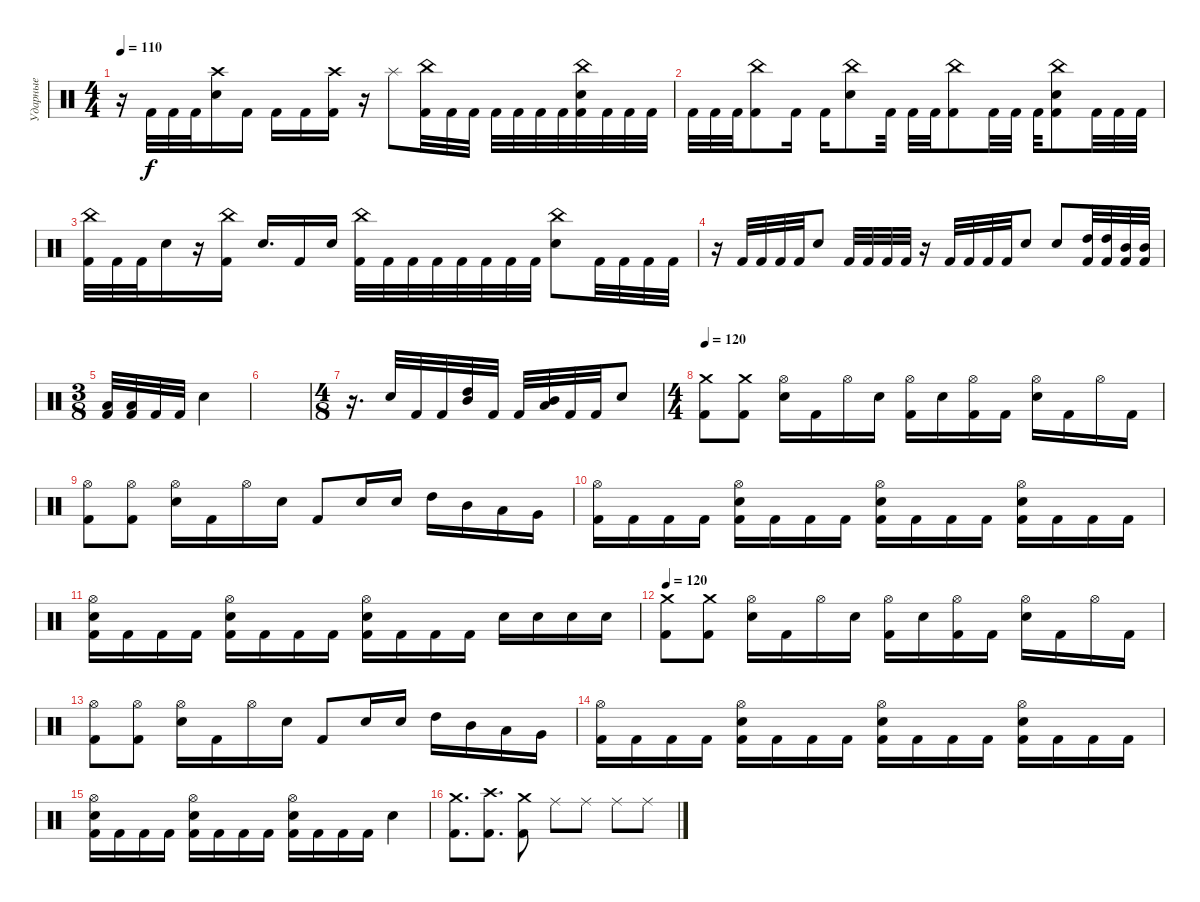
\track ("Ударные" "Ударные") {instrument percussion}
\staff {score}
\articulation defaults
\ts (4 4)
\tempo 110
\clef neutral
\ks c
r.16{dy f} "Kick (hit) 2".32 "Kick (hit) 2".32 "Kick (hit) 2".32 ("Electric Snare (hit)" "Crash high (hit)").16 "Kick (hit) 2".16 "Kick (hit) 2".16 "Kick (hit) 2".16 ("Kick (hit) 2" "Crash high (hit)").16 r.16 "Splash (hit)".8 ("Kick (hit) 2" "China (hit)").32 "Kick (hit) 2".32 "Kick (hit) 2".32 "Kick (hit) 2".32 "Kick (hit) 2".32 "Kick (hit) 2".32 "Kick (hit) 2".32 ("Kick (hit) 2" "China (hit)" "Electric Snare (hit)").32 "Kick (hit) 2".32 "Kick (hit) 2".32 "Kick (hit) 2".32 |
"Kick (hit) 2".32 "Kick (hit) 2".32 "Kick (hit) 2".32 ("China (hit)" "Kick (hit) 2").8 "Kick (hit) 2".16 "Kick (hit) 2".16 ("Electric Snare (hit)" "China (hit)").8 "Kick (hit) 2".32 "Kick (hit) 2".32 "Kick (hit) 2".32 ("China (hit)" "Kick (hit) 2").8 "Kick (hit) 2".32 "Kick (hit) 2".32 "Kick (hit) 2".32 ("China (hit)" "Kick (hit) 2" "Electric Snare (hit)").8 "Kick (hit) 2".32 "Kick (hit) 2".32 "Kick (hit) 2".32 |
("Kick (hit) 2" "China (hit)").32 "Kick (hit) 2".32 "Kick (hit) 2".32 "Electric Snare (hit)".16 r.16 ("Kick (hit) 2" "China (hit)").16 "Electric Snare (hit)".16{d} "Kick (hit) 2".16 "Electric Snare (hit)".16 ("Kick (hit) 2" "China (hit)").32 "Kick (hit) 2".32 "Kick (hit) 2".32 "Kick (hit) 2".32 "Kick (hit) 2".32 "Kick (hit) 2".32 "Kick (hit) 2".32 "Kick (hit) 2".32 ("Electric Snare (hit)" "China (hit)").8 "Kick (hit) 2".32 "Kick (hit) 2".32 "Kick (hit) 2".32 "Kick (hit) 2".32 |
r.16 "Kick (hit) 2".32 "Kick (hit) 2".32 "Kick (hit) 2".32 "Kick (hit) 2".32 "Electric Snare (hit)".8 "Kick (hit) 2".32 "Kick (hit) 2".32 "Kick (hit) 2".32 "Kick (hit) 2".32 r.16 "Kick (hit) 2".32 "Kick (hit) 2".32 "Kick (hit) 2".32 "Kick (hit) 2".32 "Electric Snare (hit)".8 "Electric Snare (hit)".8 ("Kick (hit) 2" "High Tom (hit)").32 ("Kick (hit) 2" "High Tom (hit)").32 ("Kick (hit) 2" "Mid Tom (hit)").32 ("Kick (hit) 2" "Mid Tom (hit)").32 |
\ts (3 8)
("Kick (hit) 2" "Low Tom (hit)").32 ("Kick (hit) 2" "Low Tom (hit)").32 "Kick (hit) 2".32 "Kick (hit) 2".32 "Electric Snare (hit)".4 |
|
\ts (4 8)
r.16{d} "Electric Snare (hit)".32 "Kick (hit) 2".32 "Kick (hit) 2".32 ("High Tom (hit)" "Mid Tom (hit)").32 "Kick (hit) 2".32 "Kick (hit) 2".32 ("Mid Tom (hit)" "Low Tom (hit)").32 "Kick (hit) 2".32 "Kick (hit) 2".32 "Electric Snare (hit)".8 |
\ts (4 4)
\tempo 120
("Kick (hit) 2" "Crash medium (hit)").8 ("Kick (hit) 2" "Crash medium (hit)").8 ("Electric Snare (hit)" "Hi-Hat (open)").16 "Kick (hit) 2".16 "Hi-Hat (open)".16 "Electric Snare (hit)".16 ("Hi-Hat (open)" "Kick (hit) 2").16 "Electric Snare (hit)".16 ("Hi-Hat (open)" "Kick (hit) 2").16 "Kick (hit) 2".16 ("Hi-Hat (open)" "Electric Snare (hit)").16 "Kick (hit) 2".16 "Hi-Hat (open)".16 "Kick (hit) 2".16 |
("Kick (hit) 2" "Hi-Hat (open)").8 ("Kick (hit) 2" "Hi-Hat (open)").8 ("Electric Snare (hit)" "Hi-Hat (open)").16 "Kick (hit) 2".16 "Hi-Hat (open)".16 "Electric Snare (hit)".16 "Kick (hit) 2".8 "Electric Snare (hit)".16 "Electric Snare (hit)".16 "High Tom (hit)".16 "Mid Tom (hit)".16 "Low Tom (hit)".16 "Very Low Tom (hit)".16 |
("Kick (hit) 2" "Hi-Hat (open)").16 "Kick (hit) 2".16 "Kick (hit) 2".16 "Kick (hit) 2".16 ("Kick (hit) 2" "Hi-Hat (open)" "Electric Snare (hit)").16 "Kick (hit) 2".16 "Kick (hit) 2".16 "Kick (hit) 2".16 ("Kick (hit) 2" "Hi-Hat (open)" "Electric Snare (hit)").16 "Kick (hit) 2".16 "Kick (hit) 2".16 "Kick (hit) 2".16 ("Kick (hit) 2" "Hi-Hat (open)" "Electric Snare (hit)").16 "Kick (hit) 2".16 "Kick (hit) 2".16 "Kick (hit) 2".16 |
("Kick (hit) 2" "Hi-Hat (open)" "Electric Snare (hit)").16 "Kick (hit) 2".16 "Kick (hit) 2".16 "Kick (hit) 2".16 ("Kick (hit) 2" "Hi-Hat (open)" "Electric Snare (hit)").16 "Kick (hit) 2".16 "Kick (hit) 2".16 "Kick (hit) 2".16 ("Kick (hit) 2" "Hi-Hat (open)" "Electric Snare (hit)").16 "Kick (hit) 2".16 "Kick (hit) 2".16 "Kick (hit) 2".16 "Electric Snare (hit)".16 "Electric Snare (hit)".16 "Electric Snare (hit)".16 "Electric Snare (hit)".16 |
\tempo 120
("Kick (hit) 2" "Crash medium (hit)").8 ("Kick (hit) 2" "Crash medium (hit)").8 ("Electric Snare (hit)" "Hi-Hat (open)").16 "Kick (hit) 2".16 "Hi-Hat (open)".16 "Electric Snare (hit)".16 ("Hi-Hat (open)" "Kick (hit) 2").16 "Electric Snare (hit)".16 ("Hi-Hat (open)" "Kick (hit) 2").16 "Kick (hit) 2".16 ("Hi-Hat (open)" "Electric Snare (hit)").16 "Kick (hit) 2".16 "Hi-Hat (open)".16 "Kick (hit) 2".16 |
("Kick (hit) 2" "Hi-Hat (open)").8 ("Kick (hit) 2" "Hi-Hat (open)").8 ("Electric Snare (hit)" "Hi-Hat (open)").16 "Kick (hit) 2".16 "Hi-Hat (open)".16 "Electric Snare (hit)".16 "Kick (hit) 2".8 "Electric Snare (hit)".16 "Electric Snare (hit)".16 "High Tom (hit)".16 "Mid Tom (hit)".16 "Low Tom (hit)".16 "Very Low Tom (hit)".16 |
("Kick (hit) 2" "Hi-Hat (open)").16 "Kick (hit) 2".16 "Kick (hit) 2".16 "Kick (hit) 2".16 ("Kick (hit) 2" "Hi-Hat (open)" "Electric Snare (hit)").16 "Kick (hit) 2".16 "Kick (hit) 2".16 "Kick (hit) 2".16 ("Kick (hit) 2" "Hi-Hat (open)" "Electric Snare (hit)").16 "Kick (hit) 2".16 "Kick (hit) 2".16 "Kick (hit) 2".16 ("Kick (hit) 2" "Hi-Hat (open)" "Electric Snare (hit)").16 "Kick (hit) 2".16 "Kick (hit) 2".16 "Kick (hit) 2".16 |
("Kick (hit) 2" "Hi-Hat (open)" "Electric Snare (hit)").16 "Kick (hit) 2".16 "Kick (hit) 2".16 "Kick (hit) 2".16 ("Kick (hit) 2" "Hi-Hat (open)" "Electric Snare (hit)").16 "Kick (hit) 2".16 "Kick (hit) 2".16 "Kick (hit) 2".16 ("Kick (hit) 2" "Hi-Hat (open)" "Electric Snare (hit)").16 "Kick (hit) 2".16 "Kick (hit) 2".16 "Kick (hit) 2".16 "Electric Snare (hit)".4 |
("Kick (hit) 2" "Crash medium (hit)").8{d} ("Kick (hit) 2" "Crash high (hit)").8{d} ("Kick (hit) 2" "Crash medium (hit)").8 "Ride (middle)".8 "Ride (middle)".8 "Ride (middle)".8 "Ride (middle)".8
